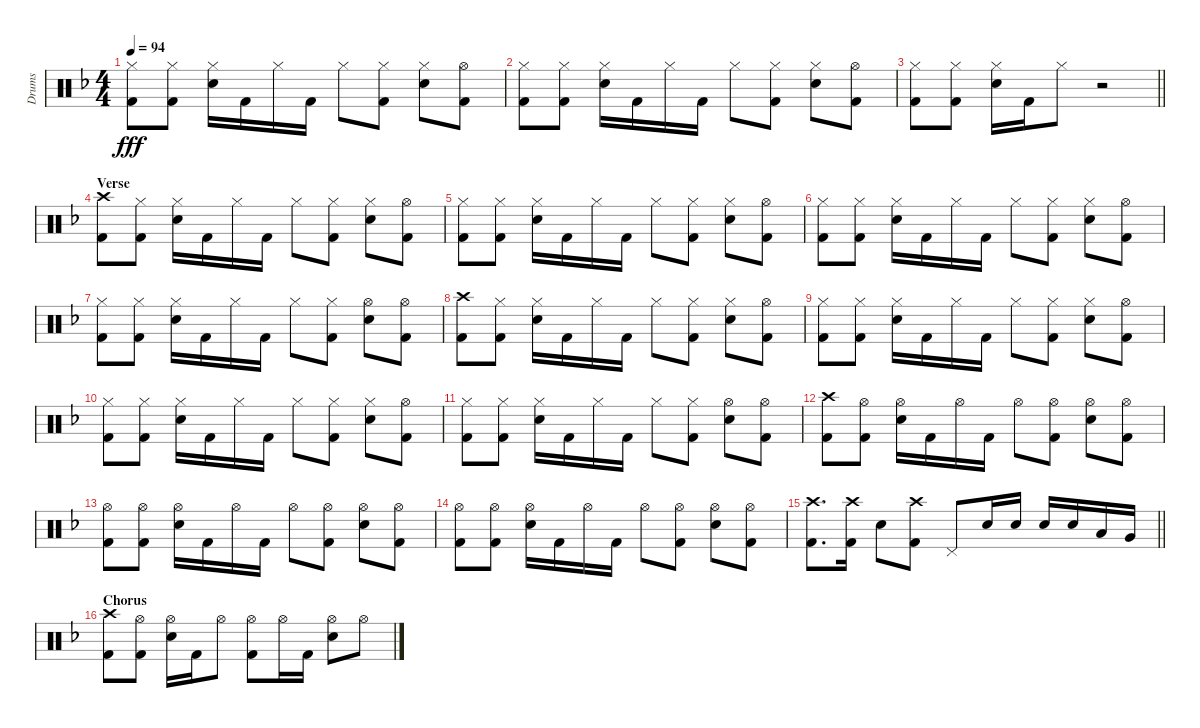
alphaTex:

\track ("Drums" "Drums") {instrument percussion}
\staff {score}
\articulation defaults
\ts (4 4)
\tempo 94
\clef neutral
\ks f
("Hi-Hat (closed)" "Kick (hit) 2").8{dy fff} ("Hi-Hat (closed)" "Kick (hit) 2").8 ("Hi-Hat (closed)" "Snare (hit) 2").16 "Kick (hit) 2".16 "Hi-Hat (closed)".16 "Kick (hit) 2".16 "Hi-Hat (closed)".8 ("Hi-Hat (closed)" "Kick (hit) 2").8 ("Hi-Hat (closed)" "Snare (hit) 2").8 ("Hi-Hat (open)" "Kick (hit) 2").8 |
("Hi-Hat (closed)" "Kick (hit) 2").8 ("Hi-Hat (closed)" "Kick (hit) 2").8 ("Hi-Hat (closed)" "Snare (hit) 2").16 "Kick (hit) 2".16 "Hi-Hat (closed)".16 "Kick (hit) 2".16 "Hi-Hat (closed)".8 ("Hi-Hat (closed)" "Kick (hit) 2").8 ("Hi-Hat (closed)" "Snare (hit) 2").8 ("Hi-Hat (open)" "Kick (hit) 2").8 |
\barLineRight lightlight
("Hi-Hat (closed)" "Kick (hit) 2").8 ("Hi-Hat (closed)" "Kick (hit) 2").8 ("Hi-Hat (closed)" "Snare (hit) 2").16 "Kick (hit) 2".16 "Hi-Hat (closed)".8 r.2 |
\section ("" "Verse")
("Crash high (hit)" "Kick (hit) 2").8 ("Hi-Hat (closed)" "Kick (hit) 2").8 ("Hi-Hat (closed)" "Snare (hit) 2").16 "Kick (hit) 2".16 "Hi-Hat (closed)".16 "Kick (hit) 2".16 "Hi-Hat (closed)".8 ("Hi-Hat (closed)" "Kick (hit) 2").8 ("Hi-Hat (closed)" "Snare (hit) 2").8 ("Hi-Hat (open)" "Kick (hit) 2").8 |
("Hi-Hat (closed)" "Kick (hit) 2").8 ("Hi-Hat (closed)" "Kick (hit) 2").8 ("Hi-Hat (closed)" "Snare (hit) 2").16 "Kick (hit) 2".16 "Hi-Hat (closed)".16 "Kick (hit) 2".16 "Hi-Hat (closed)".8 ("Hi-Hat (closed)" "Kick (hit) 2").8 ("Hi-Hat (closed)" "Snare (hit) 2").8 ("Hi-Hat (open)" "Kick (hit) 2").8 |
("Hi-Hat (closed)" "Kick (hit) 2").8 ("Hi-Hat (closed)" "Kick (hit) 2").8 ("Hi-Hat (closed)" "Snare (hit) 2").16 "Kick (hit) 2".16 "Hi-Hat (closed)".16 "Kick (hit) 2".16 "Hi-Hat (closed)".8 ("Hi-Hat (closed)" "Kick (hit) 2").8 ("Hi-Hat (closed)" "Snare (hit) 2").8 ("Hi-Hat (open)" "Kick (hit) 2").8 |
("Hi-Hat (closed)" "Kick (hit) 2").8 ("Hi-Hat (closed)" "Kick (hit) 2").8 ("Hi-Hat (closed)" "Snare (hit) 2").16 "Kick (hit) 2".16 "Hi-Hat (closed)".16 "Kick (hit) 2".16 "Hi-Hat (closed)".8 ("Hi-Hat (closed)" "Kick (hit) 2").8 ("Hi-Hat (open)" "Snare (hit) 2").8 ("Hi-Hat (open)" "Kick (hit) 2").8 |
("Crash high (hit)" "Kick (hit) 2").8 ("Hi-Hat (closed)" "Kick (hit) 2").8 ("Hi-Hat (closed)" "Snare (hit) 2").16 "Kick (hit) 2".16 "Hi-Hat (closed)".16 "Kick (hit) 2".16 "Hi-Hat (closed)".8 ("Hi-Hat (closed)" "Kick (hit) 2").8 ("Hi-Hat (closed)" "Snare (hit) 2").8 ("Hi-Hat (open)" "Kick (hit) 2").8 |
("Hi-Hat (closed)" "Kick (hit) 2").8 ("Hi-Hat (closed)" "Kick (hit) 2").8 ("Hi-Hat (closed)" "Snare (hit) 2").16 "Kick (hit) 2".16 "Hi-Hat (closed)".16 "Kick (hit) 2".16 "Hi-Hat (closed)".8 ("Hi-Hat (closed)" "Kick (hit) 2").8 ("Hi-Hat (closed)" "Snare (hit) 2").8 ("Hi-Hat (open)" "Kick (hit) 2").8 |
("Hi-Hat (closed)" "Kick (hit) 2").8 ("Hi-Hat (closed)" "Kick (hit) 2").8 ("Hi-Hat (closed)" "Snare (hit) 2").16 "Kick (hit) 2".16 "Hi-Hat (closed)".16 "Kick (hit) 2".16 "Hi-Hat (closed)".8 ("Hi-Hat (closed)" "Kick (hit) 2").8 ("Hi-Hat (closed)" "Snare (hit) 2").8 ("Hi-Hat (open)" "Kick (hit) 2").8 |
("Hi-Hat (closed)" "Kick (hit) 2").8 ("Hi-Hat (closed)" "Kick (hit) 2").8 ("Hi-Hat (closed)" "Snare (hit) 2").16 "Kick (hit) 2".16 "Hi-Hat (closed)".16 "Kick (hit) 2".16 "Hi-Hat (closed)".8 ("Hi-Hat (closed)" "Kick (hit) 2").8 ("Hi-Hat (open)" "Snare (hit) 2").8 ("Hi-Hat (open)" "Kick (hit) 2").8 |
("Crash high (hit)" "Kick (hit) 2").8 ("Hi-Hat (open)" "Kick (hit) 2").8 ("Hi-Hat (open)" "Snare (hit) 2").16 "Kick (hit) 2".16 "Hi-Hat (open)".16 "Kick (hit) 2".16 "Hi-Hat (open)".8 ("Hi-Hat (open)" "Kick (hit) 2").8 ("Hi-Hat (open)" "Snare (hit) 2").8 ("Hi-Hat (open)" "Kick (hit) 2").8 |
("Hi-Hat (open)" "Kick (hit) 2").8 ("Hi-Hat (open)" "Kick (hit) 2").8 ("Hi-Hat (open)" "Snare (hit) 2").16 "Kick (hit) 2".16 "Hi-Hat (open)".16 "Kick (hit) 2".16 "Hi-Hat (open)".8 ("Hi-Hat (open)" "Kick (hit) 2").8 ("Hi-Hat (open)" "Snare (hit) 2").8 ("Hi-Hat (open)" "Kick (hit) 2").8 |
("Hi-Hat (open)" "Kick (hit) 2").8 ("Hi-Hat (open)" "Kick (hit) 2").8 ("Hi-Hat (open)" "Snare (hit) 2").16 "Kick (hit) 2".16 "Hi-Hat (open)".16 "Kick (hit) 2".16 "Hi-Hat (open)".8 ("Hi-Hat (open)" "Kick (hit) 2").8 ("Hi-Hat (open)" "Snare (hit) 2").8 ("Hi-Hat (open)" "Kick (hit) 2").8 |
\barLineRight lightlight
("Crash high (hit)" "Kick (hit) 2").8{d} ("Crash high (hit)" "Kick (hit) 2").16 "Snare (hit) 2".8 ("Crash high (hit)" "Kick (hit) 2").8 "Pedal Hi-Hat (hit)".8 "Snare (hit) 2".16 "Snare (hit) 2".16 "Snare (hit) 2".16 "Snare (hit) 2".16 "Low Tom (hit)".16 "Very Low Tom (hit)".16 |
\section ("" "Chorus")
("Crash high (hit)" "Kick (hit) 2").8 ("Hi-Hat (open)" "Kick (hit) 2").8 ("Hi-Hat (open)" "Snare (hit) 2").16 "Kick (hit) 2".16 "Hi-Hat (open)".8 ("Hi-Hat (open)" "Kick (hit) 2").8 "Hi-Hat (open)".16 "Kick (hit) 2".16 ("Hi-Hat (open)" "Snare (hit) 2").8 "Hi-Hat (open)".8
